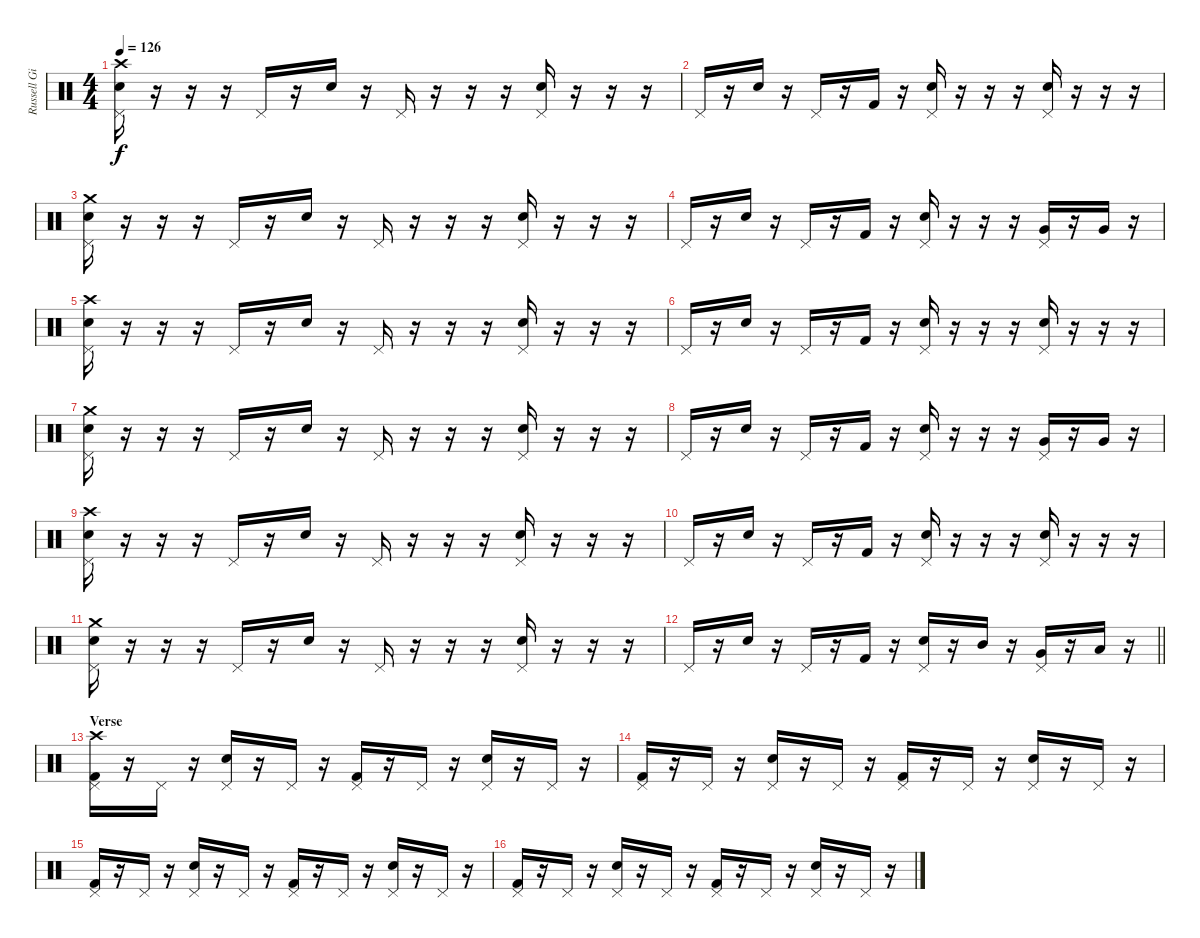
\track ("Russell Gilbrook - Drums" "Russell Gi") {instrument percussion}
\staff {score}
\articulation defaults
\ts (4 4)
\tempo 126
\clef neutral
\ks c
("Crash high (hit)" "Pedal Hi-Hat (hit)" "Snare (hit) 2").16{dy f} r.16 r.16 r.16 "Pedal Hi-Hat (hit)".16 r.16 "Snare (hit) 2".16 r.16 "Pedal Hi-Hat (hit)".16 r.16 r.16 r.16 ("Pedal Hi-Hat (hit)" "Snare (hit) 2").16 r.16 r.16 r.16 |
"Pedal Hi-Hat (hit)".16 r.16 "Snare (hit) 2".16 r.16 "Pedal Hi-Hat (hit)".16 r.16 "Kick (hit) 2".16 r.16 ("Pedal Hi-Hat (hit)" "Snare (hit) 2").16 r.16 r.16 r.16 ("Pedal Hi-Hat (hit)" "Snare (hit) 2").16 r.16 r.16 r.16 |
("Crash medium (hit)" "Pedal Hi-Hat (hit)" "Snare (hit) 2").16 r.16 r.16 r.16 "Pedal Hi-Hat (hit)".16 r.16 "Snare (hit) 2".16 r.16 "Pedal Hi-Hat (hit)".16 r.16 r.16 r.16 ("Pedal Hi-Hat (hit)" "Snare (hit) 2").16 r.16 r.16 r.16 |
"Pedal Hi-Hat (hit)".16 r.16 "Snare (hit) 2".16 r.16 "Pedal Hi-Hat (hit)".16 r.16 "Kick (hit) 2".16 r.16 ("Pedal Hi-Hat (hit)" "Snare (hit) 2").16 r.16 r.16 r.16 ("Very Low Tom (hit)" "Pedal Hi-Hat (hit)").16 r.16 "Very Low Tom (hit)".16 r.16 |
("Crash high (hit)" "Pedal Hi-Hat (hit)" "Snare (hit) 2").16 r.16 r.16 r.16 "Pedal Hi-Hat (hit)".16 r.16 "Snare (hit) 2".16 r.16 "Pedal Hi-Hat (hit)".16 r.16 r.16 r.16 ("Pedal Hi-Hat (hit)" "Snare (hit) 2").16 r.16 r.16 r.16 |
"Pedal Hi-Hat (hit)".16 r.16 "Snare (hit) 2".16 r.16 "Pedal Hi-Hat (hit)".16 r.16 "Kick (hit) 2".16 r.16 ("Pedal Hi-Hat (hit)" "Snare (hit) 2").16 r.16 r.16 r.16 ("Pedal Hi-Hat (hit)" "Snare (hit) 2").16 r.16 r.16 r.16 |
("Crash medium (hit)" "Pedal Hi-Hat (hit)" "Snare (hit) 2").16 r.16 r.16 r.16 "Pedal Hi-Hat (hit)".16 r.16 "Snare (hit) 2".16 r.16 "Pedal Hi-Hat (hit)".16 r.16 r.16 r.16 ("Pedal Hi-Hat (hit)" "Snare (hit) 2").16 r.16 r.16 r.16 |
"Pedal Hi-Hat (hit)".16 r.16 "Snare (hit) 2".16 r.16 "Pedal Hi-Hat (hit)".16 r.16 "Kick (hit) 2".16 r.16 ("Pedal Hi-Hat (hit)" "Snare (hit) 2").16 r.16 r.16 r.16 ("Very Low Tom (hit)" "Pedal Hi-Hat (hit)").16 r.16 "Very Low Tom (hit)".16 r.16 |
("Crash high (hit)" "Pedal Hi-Hat (hit)" "Snare (hit) 2").16 r.16 r.16 r.16 "Pedal Hi-Hat (hit)".16 r.16 "Snare (hit) 2".16 r.16 "Pedal Hi-Hat (hit)".16 r.16 r.16 r.16 ("Pedal Hi-Hat (hit)" "Snare (hit) 2").16 r.16 r.16 r.16 |
"Pedal Hi-Hat (hit)".16 r.16 "Snare (hit) 2".16 r.16 "Pedal Hi-Hat (hit)".16 r.16 "Kick (hit) 2".16 r.16 ("Pedal Hi-Hat (hit)" "Snare (hit) 2").16 r.16 r.16 r.16 ("Pedal Hi-Hat (hit)" "Snare (hit) 2").16 r.16 r.16 r.16 |
("Crash medium (hit)" "Pedal Hi-Hat (hit)" "Snare (hit) 2").16 r.16 r.16 r.16 "Pedal Hi-Hat (hit)".16 r.16 "Snare (hit) 2".16 r.16 "Pedal Hi-Hat (hit)".16 r.16 r.16 r.16 ("Pedal Hi-Hat (hit)" "Snare (hit) 2").16 r.16 r.16 r.16 |
\barLineRight lightlight "Pedal Hi-Hat (hit)".16
r.16 "Snare (hit) 2".16 r.16 "Pedal Hi-Hat (hit)".16 r.16 "Kick (hit) 2".16 r.16 ("Pedal Hi-Hat (hit)" "Snare (hit) 2").16 r.16 "Mid Tom (hit)".16 r.16 ("Very Low Tom (hit)" "Pedal Hi-Hat (hit)").16 r.16 "Low Floor Tom (hit)".16 r.16 |
\section ("" "Verse")
("Crash high (hit)" "Pedal Hi-Hat (hit)" "Kick (hit) 2").16 r.16 "Pedal Hi-Hat (hit)".16 r.16 ("Pedal Hi-Hat (hit)" "Snare (hit) 2").16 r.16 "Pedal Hi-Hat (hit)".16 r.16 ("Pedal Hi-Hat (hit)" "Kick (hit) 2").16 r.16 "Pedal Hi-Hat (hit)".16 r.16 ("Pedal Hi-Hat (hit)" "Snare (hit) 2").16 r.16 "Pedal Hi-Hat (hit)".16 r.16 |
("Pedal Hi-Hat (hit)" "Kick (hit) 2").16 r.16 "Pedal Hi-Hat (hit)".16 r.16 ("Pedal Hi-Hat (hit)" "Snare (hit) 2").16 r.16 "Pedal Hi-Hat (hit)".16 r.16 ("Pedal Hi-Hat (hit)" "Kick (hit) 2").16 r.16 "Pedal Hi-Hat (hit)".16 r.16 ("Pedal Hi-Hat (hit)" "Snare (hit) 2").16 r.16 "Pedal Hi-Hat (hit)".16 r.16 |
("Pedal Hi-Hat (hit)" "Kick (hit) 2").16 r.16 "Pedal Hi-Hat (hit)".16 r.16 ("Pedal Hi-Hat (hit)" "Snare (hit) 2").16 r.16 "Pedal Hi-Hat (hit)".16 r.16 ("Pedal Hi-Hat (hit)" "Kick (hit) 2").16 r.16 "Pedal Hi-Hat (hit)".16 r.16 ("Pedal Hi-Hat (hit)" "Snare (hit) 2").16 r.16 "Pedal Hi-Hat (hit)".16 r.16 |
("Pedal Hi-Hat (hit)" "Kick (hit) 2").16 r.16 "Pedal Hi-Hat (hit)".16 r.16 ("Pedal Hi-Hat (hit)" "Snare (hit) 2").16 r.16 "Pedal Hi-Hat (hit)".16 r.16 ("Pedal Hi-Hat (hit)" "Kick (hit) 2").16 r.16 "Pedal Hi-Hat (hit)".16 r.16 ("Pedal Hi-Hat (hit)" "Snare (hit) 2").16 r.16 "Pedal Hi-Hat (hit)".16 r.16
